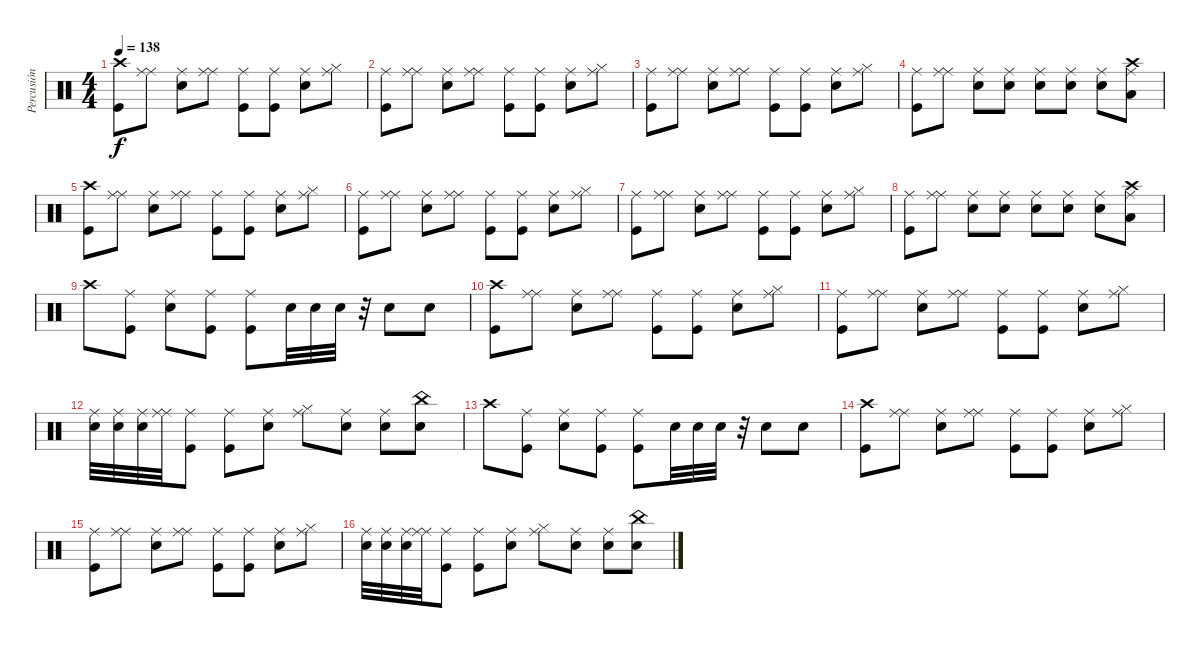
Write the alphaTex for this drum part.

\track ("Percusión" "Percusión") {instrument percussion}
\staff {score}
\articulation defaults
\ts (4 4)
\tempo 138
\clef neutral
\ks c
("Crash high (hit)" "Kick (hit)").8{dy f} ("Ride (middle)" "Ride (middle)").8 ("Ride (middle)" "Snare (hit) 2").8 ("Ride (middle)" "Ride (middle)").8 ("Ride (middle)" "Kick (hit)").8 ("Ride (middle)" "Kick (hit)").8 ("Ride (middle)" "Snare (hit) 2").8 ("Ride (middle)" "Hi-Hat (closed)").8 |
("Ride (middle)" "Kick (hit)").8 ("Ride (middle)" "Ride (middle)").8 ("Ride (middle)" "Snare (hit) 2").8 ("Ride (middle)" "Ride (middle)").8 ("Ride (middle)" "Kick (hit)").8 ("Ride (middle)" "Kick (hit)").8 ("Ride (middle)" "Snare (hit) 2").8 ("Ride (middle)" "Hi-Hat (closed)").8 |
("Ride (middle)" "Kick (hit)").8 ("Ride (middle)" "Ride (middle)").8 ("Ride (middle)" "Snare (hit) 2").8 ("Ride (middle)" "Ride (middle)").8 ("Ride (middle)" "Kick (hit)").8 ("Ride (middle)" "Kick (hit)").8 ("Ride (middle)" "Snare (hit) 2").8 ("Ride (middle)" "Hi-Hat (closed)").8 |
("Ride (middle)" "Kick (hit)").8 ("Ride (middle)" "Ride (middle)").8 ("Ride (middle)" "Snare (hit) 2").8 ("Ride (middle)" "Snare (hit) 2").8 ("Ride (middle)" "Snare (hit) 2").8 ("Ride (middle)" "Snare (hit) 2").8 ("Ride (middle)" "Snare (hit) 2").8 ("Ride (middle)" "Low Tom (hit)" "Crash high (hit)").8 |
("Crash high (hit)" "Kick (hit)").8 ("Ride (middle)" "Ride (middle)").8 ("Ride (middle)" "Snare (hit) 2").8 ("Ride (middle)" "Ride (middle)").8 ("Ride (middle)" "Kick (hit)").8 ("Ride (middle)" "Kick (hit)").8 ("Ride (middle)" "Snare (hit) 2").8 ("Ride (middle)" "Hi-Hat (closed)").8 |
("Ride (middle)" "Kick (hit)").8 ("Ride (middle)" "Ride (middle)").8 ("Ride (middle)" "Snare (hit) 2").8 ("Ride (middle)" "Ride (middle)").8 ("Ride (middle)" "Kick (hit)").8 ("Ride (middle)" "Kick (hit)").8 ("Ride (middle)" "Snare (hit) 2").8 ("Ride (middle)" "Hi-Hat (closed)").8 |
("Ride (middle)" "Kick (hit)").8 ("Ride (middle)" "Ride (middle)").8 ("Ride (middle)" "Snare (hit) 2").8 ("Ride (middle)" "Ride (middle)").8 ("Ride (middle)" "Kick (hit)").8 ("Ride (middle)" "Kick (hit)").8 ("Ride (middle)" "Snare (hit) 2").8 ("Ride (middle)" "Hi-Hat (closed)").8 |
("Ride (middle)" "Kick (hit)").8 ("Ride (middle)" "Ride (middle)").8 ("Ride (middle)" "Snare (hit) 2").8 ("Ride (middle)" "Snare (hit) 2").8 ("Ride (middle)" "Snare (hit) 2").8 ("Ride (middle)" "Snare (hit) 2").8 ("Ride (middle)" "Snare (hit) 2").8 ("Ride (middle)" "Low Tom (hit)" "Crash high (hit)").8 |
"Crash high (hit)".8 ("Kick (hit)" "Ride (middle)").8 ("Snare (hit) 2" "Ride (middle)").8 ("Kick (hit)" "Ride (middle)").8 ("Kick (hit)" "Ride (middle)").8 "Snare (hit) 2".32 "Snare (hit) 2".32 "Snare (hit) 2".32 r.32 "Snare (hit) 2".8 "Snare (hit) 2".8 |
("Crash high (hit)" "Kick (hit)").8 ("Ride (middle)" "Ride (middle)").8 ("Ride (middle)" "Snare (hit) 2").8 ("Ride (middle)" "Ride (middle)").8 ("Ride (middle)" "Kick (hit)").8 ("Ride (middle)" "Kick (hit)").8 ("Ride (middle)" "Snare (hit) 2").8 ("Ride (middle)" "Hi-Hat (closed)").8 |
("Ride (middle)" "Kick (hit)").8 ("Ride (middle)" "Ride (middle)").8 ("Ride (middle)" "Snare (hit) 2").8 ("Ride (middle)" "Ride (middle)").8 ("Ride (middle)" "Kick (hit)").8 ("Ride (middle)" "Kick (hit)").8 ("Ride (middle)" "Snare (hit) 2").8 ("Ride (middle)" "Hi-Hat (closed)").8 |
("Ride (middle)" "Snare (hit) 2").32 ("Ride (middle)" "Snare (hit) 2").32 ("Ride (middle)" "Snare (hit) 2").32 ("Ride (middle)" "Ride (middle)").32 ("Ride (middle)" "Kick (hit)").8 ("Ride (middle)" "Kick (hit)").8 ("Ride (middle)" "Snare (hit) 2").8 ("Ride (middle)" "Hi-Hat (closed)").8 ("Ride (middle)" "Snare (hit) 2").8 ("Ride (middle)" "Snare (hit) 2").8 ("China (hit)" "Snare (hit) 2").8 |
"Crash high (hit)".8 ("Kick (hit)" "Ride (middle)").8 ("Snare (hit) 2" "Ride (middle)").8 ("Kick (hit)" "Ride (middle)").8 ("Kick (hit)" "Ride (middle)").8 "Snare (hit) 2".32 "Snare (hit) 2".32 "Snare (hit) 2".32 r.32 "Snare (hit) 2".8 "Snare (hit) 2".8 |
("Crash high (hit)" "Kick (hit)").8 ("Ride (middle)" "Ride (middle)").8 ("Ride (middle)" "Snare (hit) 2").8 ("Ride (middle)" "Ride (middle)").8 ("Ride (middle)" "Kick (hit)").8 ("Ride (middle)" "Kick (hit)").8 ("Ride (middle)" "Snare (hit) 2").8 ("Ride (middle)" "Hi-Hat (closed)").8 |
("Ride (middle)" "Kick (hit)").8 ("Ride (middle)" "Ride (middle)").8 ("Ride (middle)" "Snare (hit) 2").8 ("Ride (middle)" "Ride (middle)").8 ("Ride (middle)" "Kick (hit)").8 ("Ride (middle)" "Kick (hit)").8 ("Ride (middle)" "Snare (hit) 2").8 ("Ride (middle)" "Hi-Hat (closed)").8 |
("Ride (middle)" "Snare (hit) 2").32 ("Ride (middle)" "Snare (hit) 2").32 ("Ride (middle)" "Snare (hit) 2").32 ("Ride (middle)" "Ride (middle)").32 ("Ride (middle)" "Kick (hit)").8 ("Ride (middle)" "Kick (hit)").8 ("Ride (middle)" "Snare (hit) 2").8 ("Ride (middle)" "Hi-Hat (closed)").8 ("Ride (middle)" "Snare (hit) 2").8 ("Ride (middle)" "Snare (hit) 2").8 ("China (hit)" "Snare (hit) 2").8
